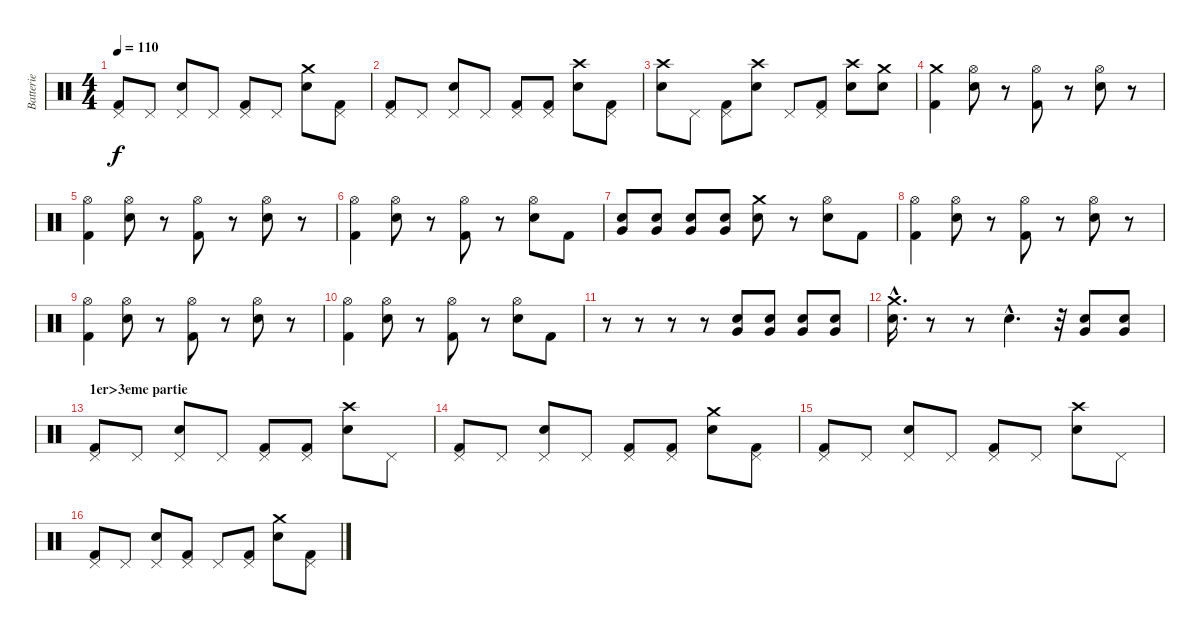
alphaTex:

\track ("Batterie" "Batterie") {instrument percussion}
\staff {score}
\articulation defaults
\ts (4 4)
\tempo 110
\clef neutral
\ks c
("Pedal Hi-Hat (hit)" "Kick (hit) 2").8{dy f} "Pedal Hi-Hat (hit)".8 ("Pedal Hi-Hat (hit)" "Electric Snare (hit)").8 "Pedal Hi-Hat (hit)".8 ("Pedal Hi-Hat (hit)" "Kick (hit) 2").8 "Pedal Hi-Hat (hit)".8 ("Crash medium (hit)" "Electric Snare (hit)").8 ("Pedal Hi-Hat (hit)" "Kick (hit) 2").8 |
("Pedal Hi-Hat (hit)" "Kick (hit) 2").8 "Pedal Hi-Hat (hit)".8 ("Pedal Hi-Hat (hit)" "Electric Snare (hit)").8 "Pedal Hi-Hat (hit)".8 ("Pedal Hi-Hat (hit)" "Kick (hit) 2").8 ("Pedal Hi-Hat (hit)" "Kick (hit) 2").8 ("Crash high (hit)" "Electric Snare (hit)").8 ("Pedal Hi-Hat (hit)" "Kick (hit) 2").8 |
("Crash high (hit)" "Electric Snare (hit)").8 "Pedal Hi-Hat (hit)".8 ("Pedal Hi-Hat (hit)" "Kick (hit) 2").8 ("Crash high (hit)" "Electric Snare (hit)").8 "Pedal Hi-Hat (hit)".8 ("Pedal Hi-Hat (hit)" "Kick (hit) 2").8 ("Crash high (hit)" "Electric Snare (hit)").8 ("Crash medium (hit)" "Electric Snare (hit)").8 |
("Crash medium (hit)" "Kick (hit) 2").4 ("Hi-Hat (open)" "Electric Snare (hit)").8 r.8 ("Hi-Hat (open)" "Kick (hit) 2").8 r.8 ("Hi-Hat (open)" "Electric Snare (hit)").8 r.8 |
("Hi-Hat (open)" "Kick (hit) 2").4 ("Hi-Hat (open)" "Electric Snare (hit)").8 r.8 ("Hi-Hat (open)" "Kick (hit) 2").8 r.8 ("Hi-Hat (open)" "Electric Snare (hit)").8 r.8 |
("Hi-Hat (open)" "Kick (hit) 2").4 ("Hi-Hat (open)" "Electric Snare (hit)").8 r.8 ("Hi-Hat (open)" "Kick (hit) 2").8 r.8 ("Hi-Hat (open)" "Electric Snare (hit)").8 "Kick (hit) 2".8 |
("Very Low Tom (hit)" "Electric Snare (hit)").8 ("Very Low Tom (hit)" "Electric Snare (hit)").8 ("Very Low Tom (hit)" "Electric Snare (hit)").8 ("Very Low Tom (hit)" "Electric Snare (hit)").8 ("Crash medium (hit)" "Electric Snare (hit)").8 r.8 ("Hi-Hat (open)" "Electric Snare (hit)").8 "Kick (hit) 2".8 |
("Hi-Hat (open)" "Kick (hit) 2").4 ("Hi-Hat (open)" "Electric Snare (hit)").8 r.8 ("Hi-Hat (open)" "Kick (hit) 2").8 r.8 ("Hi-Hat (open)" "Electric Snare (hit)").8 r.8 |
("Hi-Hat (open)" "Kick (hit) 2").4 ("Hi-Hat (open)" "Electric Snare (hit)").8 r.8 ("Hi-Hat (open)" "Kick (hit) 2").8 r.8 ("Hi-Hat (open)" "Electric Snare (hit)").8 r.8 |
("Hi-Hat (open)" "Kick (hit) 2").4 ("Hi-Hat (open)" "Electric Snare (hit)").8 r.8 ("Hi-Hat (open)" "Kick (hit) 2").8 r.8 ("Hi-Hat (open)" "Electric Snare (hit)").8 "Kick (hit) 2".8 |
r.8 r.8 r.8 r.8 ("Very Low Tom (hit)" "Electric Snare (hit)").8 ("Very Low Tom (hit)" "Electric Snare (hit)").8 ("Very Low Tom (hit)" "Electric Snare (hit)").8 ("Very Low Tom (hit)" "Electric Snare (hit)").8 |
("Crash medium (hit)"{hac} "Electric Snare (hit)"{hac}).16{d} r.8 r.8 "Electric Snare (hit)"{hac}.4{d} r.32 ("Very Low Tom (hit)" "Electric Snare (hit)").8 ("Very Low Tom (hit)" "Electric Snare (hit)").8 |
\section ("" "1er>3eme partie")
("Pedal Hi-Hat (hit)" "Kick (hit) 2").8 "Pedal Hi-Hat (hit)".8 ("Pedal Hi-Hat (hit)" "Electric Snare (hit)").8 "Pedal Hi-Hat (hit)".8 ("Pedal Hi-Hat (hit)" "Kick (hit) 2").8 ("Pedal Hi-Hat (hit)" "Kick (hit) 2").8 ("Crash high (hit)" "Electric Snare (hit)").8 "Pedal Hi-Hat (hit)".8 |
("Pedal Hi-Hat (hit)" "Kick (hit) 2").8 "Pedal Hi-Hat (hit)".8 ("Pedal Hi-Hat (hit)" "Electric Snare (hit)").8 "Pedal Hi-Hat (hit)".8 ("Pedal Hi-Hat (hit)" "Kick (hit) 2").8 ("Pedal Hi-Hat (hit)" "Kick (hit) 2").8 ("Crash medium (hit)" "Electric Snare (hit)").8 ("Pedal Hi-Hat (hit)" "Kick (hit) 2").8 |
("Pedal Hi-Hat (hit)" "Kick (hit) 2").8 "Pedal Hi-Hat (hit)".8 ("Pedal Hi-Hat (hit)" "Electric Snare (hit)").8 "Pedal Hi-Hat (hit)".8 ("Pedal Hi-Hat (hit)" "Kick (hit) 2").8 "Pedal Hi-Hat (hit)".8 ("Crash high (hit)" "Electric Snare (hit)").8 "Pedal Hi-Hat (hit)".8 |
("Pedal Hi-Hat (hit)" "Kick (hit) 2").8 "Pedal Hi-Hat (hit)".8 ("Pedal Hi-Hat (hit)" "Electric Snare (hit)").8 ("Pedal Hi-Hat (hit)" "Kick (hit) 2").8 "Pedal Hi-Hat (hit)".8 ("Pedal Hi-Hat (hit)" "Kick (hit) 2").8 ("Crash medium (hit)" "Electric Snare (hit)").8 ("Pedal Hi-Hat (hit)" "Kick (hit) 2").8
